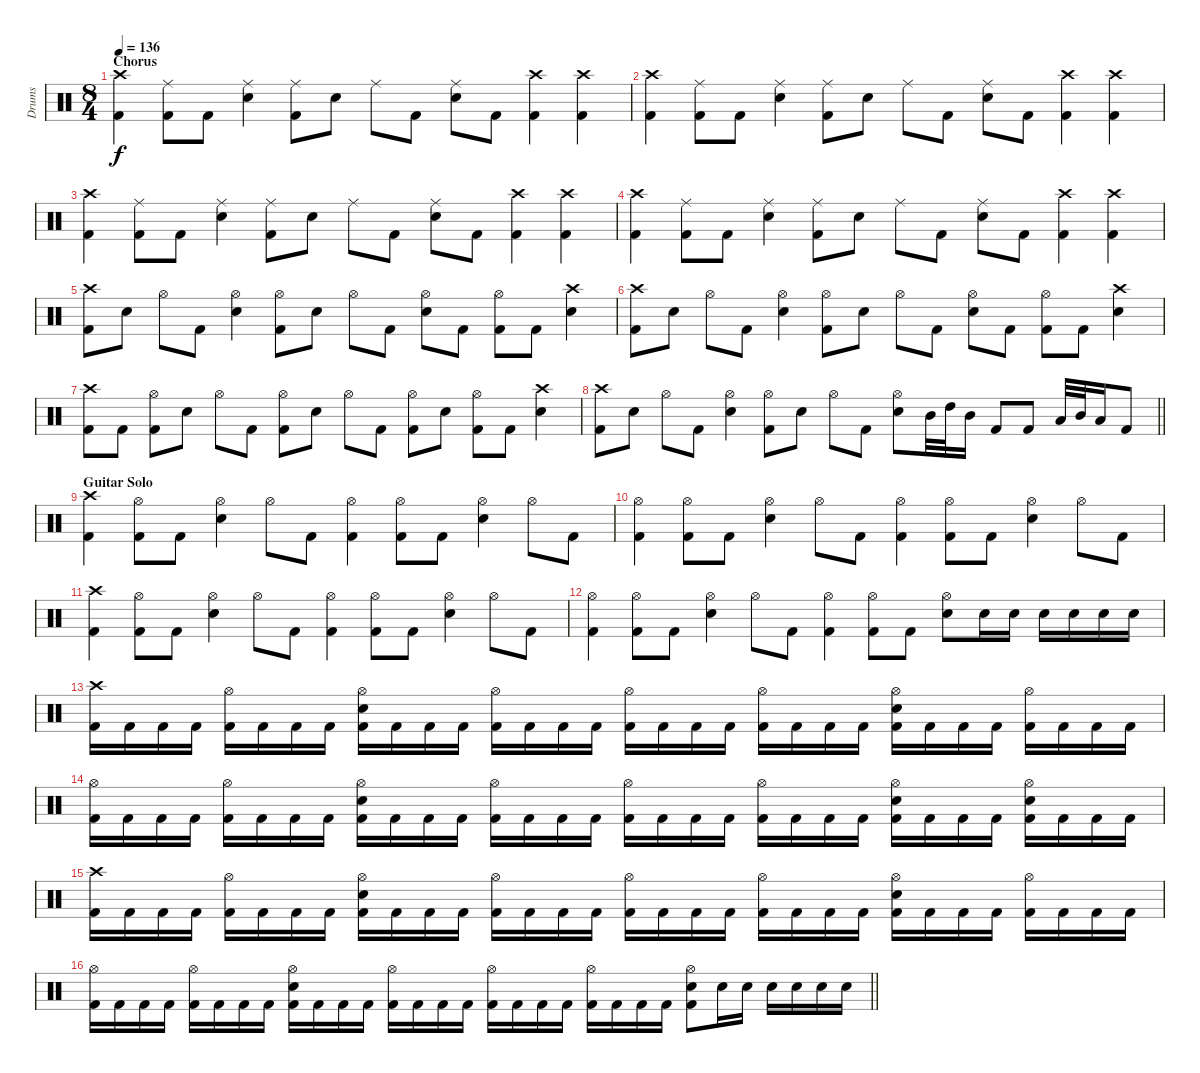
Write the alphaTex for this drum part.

\track ("Drums" "Drums") {instrument percussion}
\staff {score}
\articulation defaults
\ts (8 4)
\section ("" "Chorus")
\tempo 136
\clef neutral
\ks c
("Crash high (hit)" "Kick (hit) 2").4{dy f} ("Ride (middle)" "Kick (hit) 2").8 "Kick (hit) 2".8 ("Ride (middle)" "Snare (hit) 2").4 ("Ride (middle)" "Kick (hit) 2").8 "Snare (hit) 2".8 "Ride (middle)".8 "Kick (hit) 2".8 ("Ride (middle)" "Snare (hit) 2").8 "Kick (hit) 2".8 ("Crash high (hit)" "Kick (hit) 2").4 ("Crash high (hit)" "Kick (hit) 2").4 |
("Crash high (hit)" "Kick (hit) 2").4 ("Ride (middle)" "Kick (hit) 2").8 "Kick (hit) 2".8 ("Ride (middle)" "Snare (hit) 2").4 ("Ride (middle)" "Kick (hit) 2").8 "Snare (hit) 2".8 "Ride (middle)".8 "Kick (hit) 2".8 ("Ride (middle)" "Snare (hit) 2").8 "Kick (hit) 2".8 ("Crash high (hit)" "Kick (hit) 2").4 ("Crash high (hit)" "Kick (hit) 2").4 |
("Crash high (hit)" "Kick (hit) 2").4 ("Ride (middle)" "Kick (hit) 2").8 "Kick (hit) 2".8 ("Ride (middle)" "Snare (hit) 2").4 ("Ride (middle)" "Kick (hit) 2").8 "Snare (hit) 2".8 "Ride (middle)".8 "Kick (hit) 2".8 ("Ride (middle)" "Snare (hit) 2").8 "Kick (hit) 2".8 ("Crash high (hit)" "Kick (hit) 2").4 ("Crash high (hit)" "Kick (hit) 2").4 |
("Crash high (hit)" "Kick (hit) 2").4 ("Ride (middle)" "Kick (hit) 2").8 "Kick (hit) 2".8 ("Ride (middle)" "Snare (hit) 2").4 ("Ride (middle)" "Kick (hit) 2").8 "Snare (hit) 2".8 "Ride (middle)".8 "Kick (hit) 2".8 ("Ride (middle)" "Snare (hit) 2").8 "Kick (hit) 2".8 ("Crash high (hit)" "Kick (hit) 2").4 ("Crash high (hit)" "Kick (hit) 2").4 |
("Crash high (hit)" "Kick (hit) 2").8 "Snare (hit) 2".8 "Hi-Hat (open)".8 "Kick (hit) 2".8 ("Hi-Hat (open)" "Snare (hit) 2").4 ("Hi-Hat (open)" "Kick (hit) 2").8 "Snare (hit) 2".8 "Hi-Hat (open)".8 "Kick (hit) 2".8 ("Hi-Hat (open)" "Snare (hit) 2").8 "Kick (hit) 2".8 ("Hi-Hat (open)" "Kick (hit) 2").8 "Kick (hit) 2".8 ("Crash high (hit)" "Snare (hit) 2").4 |
("Crash high (hit)" "Kick (hit) 2").8 "Snare (hit) 2".8 "Hi-Hat (open)".8 "Kick (hit) 2".8 ("Hi-Hat (open)" "Snare (hit) 2").4 ("Hi-Hat (open)" "Kick (hit) 2").8 "Snare (hit) 2".8 "Hi-Hat (open)".8 "Kick (hit) 2".8 ("Hi-Hat (open)" "Snare (hit) 2").8 "Kick (hit) 2".8 ("Hi-Hat (open)" "Kick (hit) 2").8 "Kick (hit) 2".8 ("Crash high (hit)" "Snare (hit) 2").4 |
("Crash high (hit)" "Kick (hit) 2").8 "Kick (hit) 2".8 ("Hi-Hat (open)" "Kick (hit) 2").8 "Snare (hit) 2".8 "Hi-Hat (open)".8 "Kick (hit) 2".8 ("Hi-Hat (open)" "Kick (hit) 2").8 "Snare (hit) 2".8 "Hi-Hat (open)".8 "Kick (hit) 2".8 ("Hi-Hat (open)" "Kick (hit) 2").8 "Snare (hit) 2".8 ("Hi-Hat (open)" "Kick (hit) 2").8 "Kick (hit) 2".8 ("Crash high (hit)" "Snare (hit) 2").4 |
\barLineRight lightlight
("Crash high (hit)" "Kick (hit) 2").8 "Snare (hit) 2".8 "Hi-Hat (open)".8 "Kick (hit) 2".8 ("Hi-Hat (open)" "Snare (hit) 2").4 ("Hi-Hat (open)" "Kick (hit) 2").8 "Snare (hit) 2".8 "Hi-Hat (open)".8 "Kick (hit) 2".8 ("Hi-Hat (open)" "Snare (hit) 2").8 "Mid Tom (hit)".32 "High Tom (hit)".32 "Mid Tom (hit)".16 "Kick (hit) 2".8 "Kick (hit) 2".8 "Low Tom (hit)".32 "Mid Tom (hit)".32 "Low Tom (hit)".16 "Kick (hit) 2".8 |
\section ("" "Guitar Solo")
("Crash high (hit)" "Kick (hit) 2").4 ("Hi-Hat (open)" "Kick (hit) 2").8 "Kick (hit) 2".8 ("Hi-Hat (open)" "Snare (hit) 2").4 "Hi-Hat (open)".8 "Kick (hit) 2".8 ("Hi-Hat (open)" "Kick (hit) 2").4 ("Hi-Hat (open)" "Kick (hit) 2").8 "Kick (hit) 2".8 ("Hi-Hat (open)" "Snare (hit) 2").4 "Hi-Hat (open)".8 "Kick (hit) 2".8 |
("Hi-Hat (open)" "Kick (hit) 2").4 ("Hi-Hat (open)" "Kick (hit) 2").8 "Kick (hit) 2".8 ("Hi-Hat (open)" "Snare (hit) 2").4 "Hi-Hat (open)".8 "Kick (hit) 2".8 ("Hi-Hat (open)" "Kick (hit) 2").4 ("Hi-Hat (open)" "Kick (hit) 2").8 "Kick (hit) 2".8 ("Hi-Hat (open)" "Snare (hit) 2").4 "Hi-Hat (open)".8 "Kick (hit) 2".8 |
("Crash high (hit)" "Kick (hit) 2").4 ("Hi-Hat (open)" "Kick (hit) 2").8 "Kick (hit) 2".8 ("Hi-Hat (open)" "Snare (hit) 2").4 "Hi-Hat (open)".8 "Kick (hit) 2".8 ("Hi-Hat (open)" "Kick (hit) 2").4 ("Hi-Hat (open)" "Kick (hit) 2").8 "Kick (hit) 2".8 ("Hi-Hat (open)" "Snare (hit) 2").4 "Hi-Hat (open)".8 "Kick (hit) 2".8 |
("Hi-Hat (open)" "Kick (hit) 2").4 ("Hi-Hat (open)" "Kick (hit) 2").8 "Kick (hit) 2".8 ("Hi-Hat (open)" "Snare (hit) 2").4 "Hi-Hat (open)".8 "Kick (hit) 2".8 ("Hi-Hat (open)" "Kick (hit) 2").4 ("Hi-Hat (open)" "Kick (hit) 2").8 "Kick (hit) 2".8 ("Hi-Hat (open)" "Snare (hit) 2").8 "Snare (hit) 2".16 "Snare (hit) 2".16 "Snare (hit) 2".16 "Snare (hit) 2".16 "Snare (hit) 2".16 "Snare (hit) 2".16 |
("Crash high (hit)" "Kick (hit) 2").16 "Kick (hit) 2".16 "Kick (hit) 2".16 "Kick (hit) 2".16 ("Hi-Hat (open)" "Kick (hit) 2").16 "Kick (hit) 2".16 "Kick (hit) 2".16 "Kick (hit) 2".16 ("Hi-Hat (open)" "Snare (hit) 2" "Kick (hit) 2").16 "Kick (hit) 2".16 "Kick (hit) 2".16 "Kick (hit) 2".16 ("Hi-Hat (open)" "Kick (hit) 2").16 "Kick (hit) 2".16 "Kick (hit) 2".16 "Kick (hit) 2".16 ("Hi-Hat (open)" "Kick (hit) 2").16 "Kick (hit) 2".16 "Kick (hit) 2".16 "Kick (hit) 2".16 ("Hi-Hat (open)" "Kick (hit) 2").16 "Kick (hit) 2".16 "Kick (hit) 2".16 "Kick (hit) 2".16 ("Hi-Hat (open)" "Snare (hit) 2" "Kick (hit) 2").16 "Kick (hit) 2".16 "Kick (hit) 2".16 "Kick (hit) 2".16 ("Hi-Hat (open)" "Kick (hit) 2").16 "Kick (hit) 2".16 "Kick (hit) 2".16 "Kick (hit) 2".16 |
("Hi-Hat (open)" "Kick (hit) 2").16 "Kick (hit) 2".16 "Kick (hit) 2".16 "Kick (hit) 2".16 ("Hi-Hat (open)" "Kick (hit) 2").16 "Kick (hit) 2".16 "Kick (hit) 2".16 "Kick (hit) 2".16 ("Hi-Hat (open)" "Snare (hit) 2" "Kick (hit) 2").16 "Kick (hit) 2".16 "Kick (hit) 2".16 "Kick (hit) 2".16 ("Hi-Hat (open)" "Kick (hit) 2").16 "Kick (hit) 2".16 "Kick (hit) 2".16 "Kick (hit) 2".16 ("Hi-Hat (open)" "Kick (hit) 2").16 "Kick (hit) 2".16 "Kick (hit) 2".16 "Kick (hit) 2".16 ("Hi-Hat (open)" "Kick (hit) 2").16 "Kick (hit) 2".16 "Kick (hit) 2".16 "Kick (hit) 2".16 ("Hi-Hat (open)" "Snare (hit) 2" "Kick (hit) 2").16 "Kick (hit) 2".16 "Kick (hit) 2".16 "Kick (hit) 2".16 ("Hi-Hat (open)" "Snare (hit) 2" "Kick (hit) 2").16 "Kick (hit) 2".16 "Kick (hit) 2".16 "Kick (hit) 2".16 |
("Crash high (hit)" "Kick (hit) 2").16 "Kick (hit) 2".16 "Kick (hit) 2".16 "Kick (hit) 2".16 ("Hi-Hat (open)" "Kick (hit) 2").16 "Kick (hit) 2".16 "Kick (hit) 2".16 "Kick (hit) 2".16 ("Hi-Hat (open)" "Snare (hit) 2" "Kick (hit) 2").16 "Kick (hit) 2".16 "Kick (hit) 2".16 "Kick (hit) 2".16 ("Hi-Hat (open)" "Kick (hit) 2").16 "Kick (hit) 2".16 "Kick (hit) 2".16 "Kick (hit) 2".16 ("Hi-Hat (open)" "Kick (hit) 2").16 "Kick (hit) 2".16 "Kick (hit) 2".16 "Kick (hit) 2".16 ("Hi-Hat (open)" "Kick (hit) 2").16 "Kick (hit) 2".16 "Kick (hit) 2".16 "Kick (hit) 2".16 ("Hi-Hat (open)" "Snare (hit) 2" "Kick (hit) 2").16 "Kick (hit) 2".16 "Kick (hit) 2".16 "Kick (hit) 2".16 ("Hi-Hat (open)" "Kick (hit) 2").16 "Kick (hit) 2".16 "Kick (hit) 2".16 "Kick (hit) 2".16 |
\barLineRight lightlight
("Hi-Hat (open)" "Kick (hit) 2").16 "Kick (hit) 2".16 "Kick (hit) 2".16 "Kick (hit) 2".16 ("Hi-Hat (open)" "Kick (hit) 2").16 "Kick (hit) 2".16 "Kick (hit) 2".16 "Kick (hit) 2".16 ("Hi-Hat (open)" "Snare (hit) 2" "Kick (hit) 2").16 "Kick (hit) 2".16 "Kick (hit) 2".16 "Kick (hit) 2".16 ("Hi-Hat (open)" "Kick (hit) 2").16 "Kick (hit) 2".16 "Kick (hit) 2".16 "Kick (hit) 2".16 ("Hi-Hat (open)" "Kick (hit) 2").16 "Kick (hit) 2".16 "Kick (hit) 2".16 "Kick (hit) 2".16 ("Hi-Hat (open)" "Kick (hit) 2").16 "Kick (hit) 2".16 "Kick (hit) 2".16 "Kick (hit) 2".16 ("Hi-Hat (open)" "Snare (hit) 2" "Kick (hit) 2").8 "Snare (hit) 2".16 "Snare (hit) 2".16 "Snare (hit) 2".16 "Snare (hit) 2".16 "Snare (hit) 2".16 "Snare (hit) 2".16
